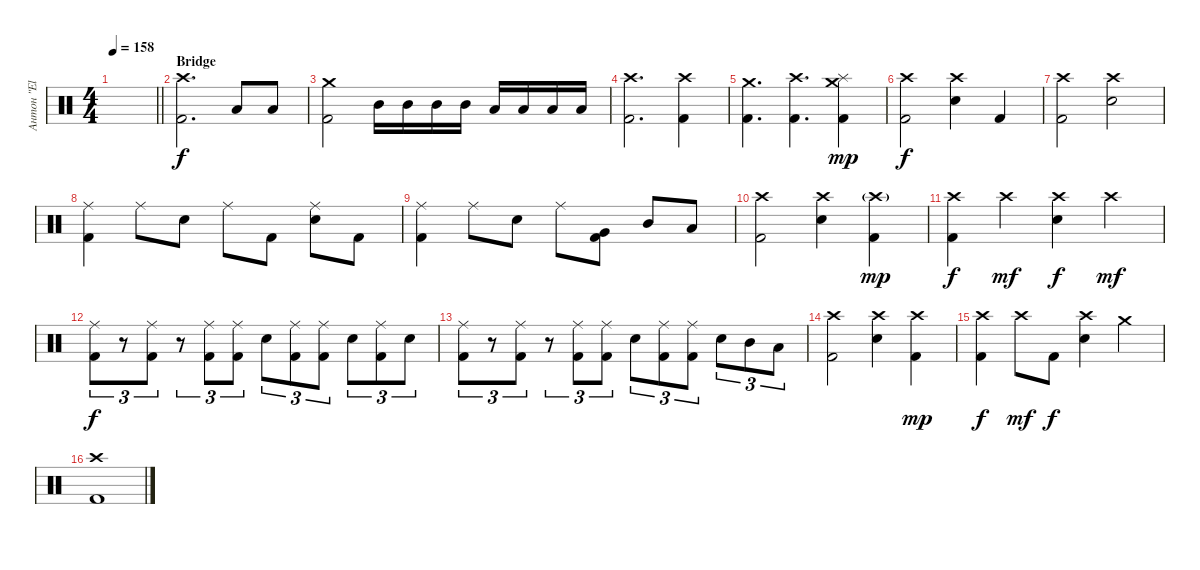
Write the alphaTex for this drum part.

\track ("Антон \"El Bastardo\" Смольянин" "Антон \"El ") {instrument percussion}
\staff {score}
\articulation defaults
\ts (4 4)
\tempo 158
\clef neutral
\barLineRight lightlight
\ks c
|
\section ("" "Bridge")
("Crash high (hit)" "Kick (hit) 2").2{d} "Low Tom (hit)".8 "Low Tom (hit)".8 |
("Crash medium (hit)" "Kick (hit) 2").2 "Mid Tom (hit)".16 "Mid Tom (hit)".16 "Mid Tom (hit)".16 "Mid Tom (hit)".16 "Low Tom (hit)".16 "Low Tom (hit)".16 "Low Tom (hit)".16 "Low Tom (hit)".16 |
("Crash high (hit)" "Kick (hit) 2").2{d} ("Crash high (hit)" "Kick (hit) 2").4 |
("Crash medium (hit)" "Kick (hit) 2").4{d} ("Crash high (hit)" "Kick (hit) 2").4{d} ("Crash medium (hit)" "Splash (hit)" "Kick (hit) 2").4{dy mp} |
("Crash high (hit)" "Kick (hit) 2").2{dy f} ("Crash high (hit)" "Electric Snare (hit)").4 "Kick (hit) 2".4 |
("Crash high (hit)" "Kick (hit) 2").2 ("Crash high (hit)" "Electric Snare (hit)").2 |
("Ride (middle)" "Kick (hit) 2").4 "Ride (middle)".8 "Electric Snare (hit)".8 "Ride (middle)".8 "Kick (hit) 2".8 ("Ride (middle)" "Electric Snare (hit)").8 "Kick (hit) 2".8 |
("Ride (middle)" "Kick (hit) 2").4 "Ride (middle)".8 "Electric Snare (hit)".8 "Ride (middle)".8 ("Very Low Tom (hit)" "Kick (hit) 2").8 "Mid Tom (hit)".8 "Low Tom (hit)".8 |
("Crash high (hit)" "Kick (hit) 2").2 ("Crash high (hit)" "Electric Snare (hit)").4 ("Crash high (hit)"{g} "Kick (hit) 2").4{dy mp} |
("Crash high (hit)" "Kick (hit) 2").4{dy f} "Crash high (hit)".4{dy mf} ("Crash high (hit)" "Electric Snare (hit)").4{dy f} "Crash high (hit)".4{dy mf} |
("Ride (middle)" "Kick (hit) 2").8{tu (3 2) dy f} r.8{tu (3 2)} ("Ride (middle)" "Kick (hit) 2").8{tu (3 2)} r.8{tu (3 2)} ("Ride (middle)" "Kick (hit) 2").8{tu (3 2)} ("Ride (middle)" "Kick (hit) 2").8{tu (3 2)} "Electric Snare (hit)".8{tu (3 2)} ("Ride (middle)" "Kick (hit) 2").8{tu (3 2)} ("Ride (middle)" "Kick (hit) 2").8{tu (3 2)} "Electric Snare (hit)".8{tu (3 2)} ("Ride (middle)" "Kick (hit) 2").8{tu (3 2)} "Electric Snare (hit)".8{tu (3 2)} |
("Ride (middle)" "Kick (hit) 2").8{tu (3 2)} r.8{tu (3 2)} ("Ride (middle)" "Kick (hit) 2").8{tu (3 2)} r.8{tu (3 2)} ("Ride (middle)" "Kick (hit) 2").8{tu (3 2)} ("Ride (middle)" "Kick (hit) 2").8{tu (3 2)} "Electric Snare (hit)".8{tu (3 2)} ("Ride (middle)" "Kick (hit) 2").8{tu (3 2)} ("Ride (middle)" "Kick (hit) 2").8{tu (3 2)} "Electric Snare (hit)".8{tu (3 2)} "Mid Tom (hit)".8{tu (3 2)} "Low Tom (hit)".8{tu (3 2)} |
("Crash high (hit)" "Kick (hit) 2").2 ("Crash high (hit)" "Electric Snare (hit)").4 ("Crash high (hit)" "Kick (hit) 2").4{dy mp} |
("Crash high (hit)" "Kick (hit) 2").4{dy f} "Crash high (hit)".8{dy mf} "Kick (hit) 2".8{dy f} ("Crash high (hit)" "Electric Snare (hit)").4 "Crash medium (hit)".4 |
("Crash high (hit)" "Kick (hit) 2").1
